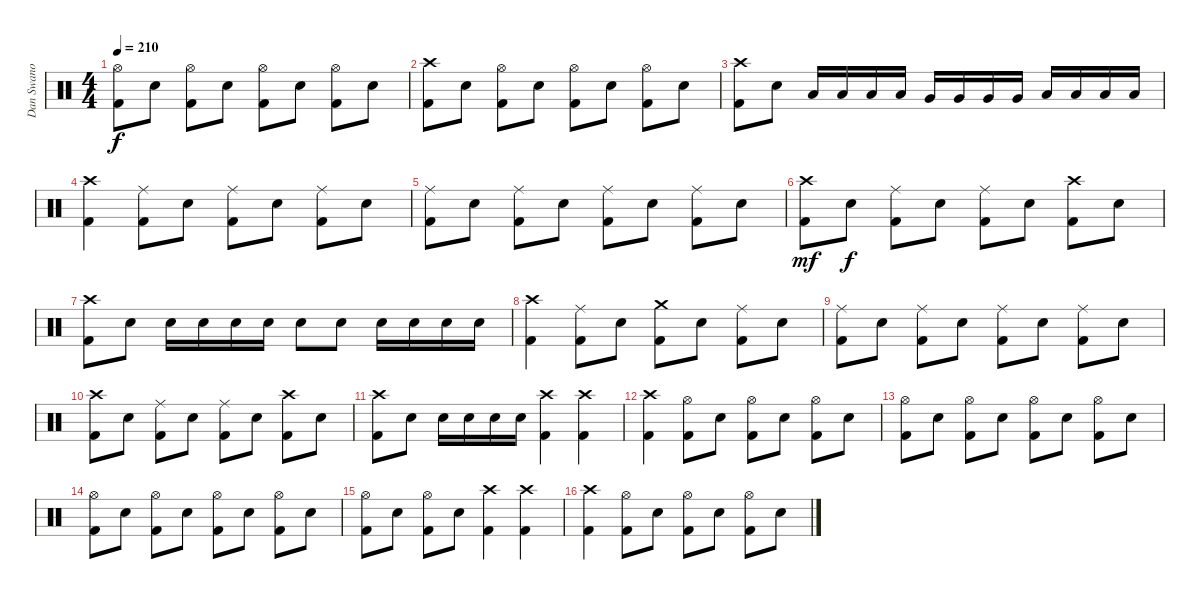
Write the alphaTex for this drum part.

\track ("Dan Swano" "Dan Swano") {instrument percussion}
\staff {score}
\articulation defaults
\ts (4 4)
\tempo 210
\clef neutral
\ks c
("Hi-Hat (open)" "Kick (hit) 2").8{dy f} "Electric Snare (hit)".8 ("Hi-Hat (open)" "Kick (hit) 2").8 "Electric Snare (hit)".8 ("Hi-Hat (open)" "Kick (hit) 2").8 "Electric Snare (hit)".8 ("Hi-Hat (open)" "Kick (hit) 2").8 "Electric Snare (hit)".8 |
("Crash high (hit)" "Kick (hit) 2").8 "Electric Snare (hit)".8 ("Hi-Hat (open)" "Kick (hit) 2").8 "Electric Snare (hit)".8 ("Hi-Hat (open)" "Kick (hit) 2").8 "Electric Snare (hit)".8 ("Hi-Hat (open)" "Kick (hit) 2").8 "Electric Snare (hit)".8 |
("Crash high (hit)" "Kick (hit) 2").8 "Electric Snare (hit)".8 "Low Tom (hit)".16 "Low Tom (hit)".16 "Low Tom (hit)".16 "Low Tom (hit)".16 "Very Low Tom (hit)".16 "Very Low Tom (hit)".16 "Very Low Tom (hit)".16 "Very Low Tom (hit)".16 "Low Floor Tom (hit)".16 "Low Floor Tom (hit)".16 "Low Floor Tom (hit)".16 "Low Floor Tom (hit)".16 |
("Crash high (hit)" "Kick (hit) 2").4 ("Ride (middle)" "Kick (hit) 2").8 "Electric Snare (hit)".8 ("Ride (middle)" "Kick (hit) 2").8 "Electric Snare (hit)".8 ("Ride (middle)" "Kick (hit) 2").8 "Electric Snare (hit)".8 |
("Ride (middle)" "Kick (hit) 2").8 "Electric Snare (hit)".8 ("Ride (middle)" "Kick (hit) 2").8 "Electric Snare (hit)".8 ("Ride (middle)" "Kick (hit) 2").8 "Electric Snare (hit)".8 ("Ride (middle)" "Kick (hit) 2").8 "Electric Snare (hit)".8 |
("Crash high (hit)" "Kick (hit) 2").8{dy mf} "Electric Snare (hit)".8{dy f} ("Ride (middle)" "Kick (hit) 2").8 "Electric Snare (hit)".8 ("Ride (middle)" "Kick (hit) 2").8 "Electric Snare (hit)".8 ("Crash high (hit)" "Kick (hit) 2").8 "Electric Snare (hit)".8 |
("Crash high (hit)" "Kick (hit) 2").8 "Electric Snare (hit)".8 "Electric Snare (hit)".16 "Electric Snare (hit)".16 "Electric Snare (hit)".16 "Electric Snare (hit)".16 "Electric Snare (hit)".8 "Electric Snare (hit)".8 "Electric Snare (hit)".16 "Electric Snare (hit)".16 "Electric Snare (hit)".16 "Electric Snare (hit)".16 |
("Crash high (hit)" "Kick (hit) 2").4 ("Ride (middle)" "Kick (hit) 2").8 "Electric Snare (hit)".8 ("Crash medium (hit)" "Kick (hit) 2").8 "Electric Snare (hit)".8 ("Ride (middle)" "Kick (hit) 2").8 "Electric Snare (hit)".8 |
("Ride (middle)" "Kick (hit) 2").8 "Electric Snare (hit)".8 ("Ride (middle)" "Kick (hit) 2").8 "Electric Snare (hit)".8 ("Ride (middle)" "Kick (hit) 2").8 "Electric Snare (hit)".8 ("Ride (middle)" "Kick (hit) 2").8 "Electric Snare (hit)".8 |
("Crash high (hit)" "Kick (hit) 2").8 "Electric Snare (hit)".8 ("Ride (middle)" "Kick (hit) 2").8 "Electric Snare (hit)".8 ("Ride (middle)" "Kick (hit) 2").8 "Electric Snare (hit)".8 ("Crash high (hit)" "Kick (hit) 2").8 "Electric Snare (hit)".8 |
("Crash high (hit)" "Kick (hit) 2").8 "Electric Snare (hit)".8 "Electric Snare (hit)".16 "Electric Snare (hit)".16 "Electric Snare (hit)".16 "Electric Snare (hit)".16 ("Crash high (hit)" "Kick (hit) 2").4 ("Crash high (hit)" "Kick (hit) 2").4 |
("Crash high (hit)" "Kick (hit) 2").4 ("Hi-Hat (open)" "Kick (hit) 2").8 "Electric Snare (hit)".8 ("Hi-Hat (open)" "Kick (hit) 2").8 "Electric Snare (hit)".8 ("Hi-Hat (open)" "Kick (hit) 2").8 "Electric Snare (hit)".8 |
("Hi-Hat (open)" "Kick (hit) 2").8 "Electric Snare (hit)".8 ("Hi-Hat (open)" "Kick (hit) 2").8 "Electric Snare (hit)".8 ("Hi-Hat (open)" "Kick (hit) 2").8 "Electric Snare (hit)".8 ("Hi-Hat (open)" "Kick (hit) 2").8 "Electric Snare (hit)".8 |
("Hi-Hat (open)" "Kick (hit) 2").8 "Electric Snare (hit)".8 ("Hi-Hat (open)" "Kick (hit) 2").8 "Electric Snare (hit)".8 ("Hi-Hat (open)" "Kick (hit) 2").8 "Electric Snare (hit)".8 ("Hi-Hat (open)" "Kick (hit) 2").8 "Electric Snare (hit)".8 |
("Hi-Hat (open)" "Kick (hit) 2").8 "Electric Snare (hit)".8 ("Hi-Hat (open)" "Kick (hit) 2").8 "Electric Snare (hit)".8 ("Crash high (hit)" "Kick (hit) 2").4 ("Crash high (hit)" "Kick (hit) 2").4 |
("Crash high (hit)" "Kick (hit) 2").4 ("Hi-Hat (open)" "Kick (hit) 2").8 "Electric Snare (hit)".8 ("Hi-Hat (open)" "Kick (hit) 2").8 "Electric Snare (hit)".8 ("Hi-Hat (open)" "Kick (hit) 2").8 "Electric Snare (hit)".8
